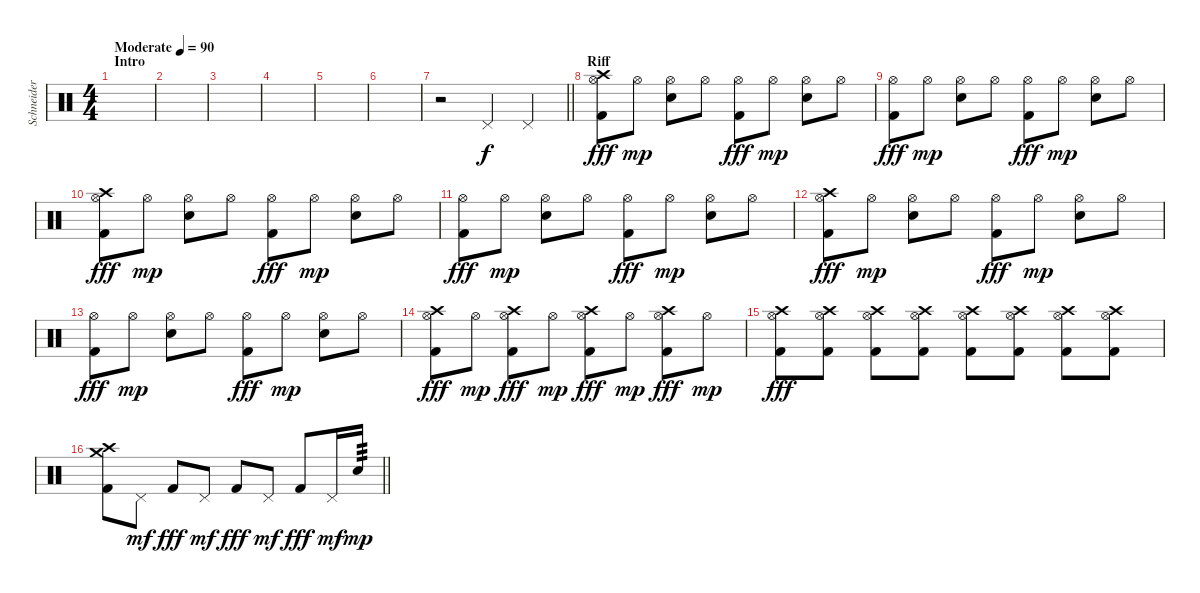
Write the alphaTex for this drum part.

\track ("Schneider" "Schneider") {instrument percussion}
\staff {score}
\articulation defaults
\ts (4 4)
\section ("" "Intro")
\tempo (90 "Moderate")
\clef neutral
\ks c
|
|
|
|
|
|
\barLineRight lightlight
r.2 "Pedal Hi-Hat (hit)".4 "Pedal Hi-Hat (hit)".4 |
\section ("" "Riff")
("Crash high (hit)" "Hi-Hat (open)" "Kick (hit) 2").8{dy fff} "Hi-Hat (open)".8{dy mp} ("Hi-Hat (open)" "Electric Snare (hit)").8 "Hi-Hat (open)".8 ("Hi-Hat (open)" "Kick (hit) 2").8{dy fff} "Hi-Hat (open)".8{dy mp} ("Hi-Hat (open)" "Electric Snare (hit)").8 "Hi-Hat (open)".8 |
("Hi-Hat (open)" "Kick (hit) 2").8{dy fff} "Hi-Hat (open)".8{dy mp} ("Hi-Hat (open)" "Electric Snare (hit)").8 "Hi-Hat (open)".8 ("Hi-Hat (open)" "Kick (hit) 2").8{dy fff} "Hi-Hat (open)".8{dy mp} ("Hi-Hat (open)" "Electric Snare (hit)").8 "Hi-Hat (open)".8 |
("Crash high (hit)" "Hi-Hat (open)" "Kick (hit) 2").8{dy fff} "Hi-Hat (open)".8{dy mp} ("Hi-Hat (open)" "Electric Snare (hit)").8 "Hi-Hat (open)".8 ("Hi-Hat (open)" "Kick (hit) 2").8{dy fff} "Hi-Hat (open)".8{dy mp} ("Hi-Hat (open)" "Electric Snare (hit)").8 "Hi-Hat (open)".8 |
("Hi-Hat (open)" "Kick (hit) 2").8{dy fff} "Hi-Hat (open)".8{dy mp} ("Hi-Hat (open)" "Electric Snare (hit)").8 "Hi-Hat (open)".8 ("Hi-Hat (open)" "Kick (hit) 2").8{dy fff} "Hi-Hat (open)".8{dy mp} ("Hi-Hat (open)" "Electric Snare (hit)").8 "Hi-Hat (open)".8 |
("Crash high (hit)" "Hi-Hat (open)" "Kick (hit) 2").8{dy fff} "Hi-Hat (open)".8{dy mp} ("Hi-Hat (open)" "Electric Snare (hit)").8 "Hi-Hat (open)".8 ("Hi-Hat (open)" "Kick (hit) 2").8{dy fff} "Hi-Hat (open)".8{dy mp} ("Hi-Hat (open)" "Electric Snare (hit)").8 "Hi-Hat (open)".8 |
("Hi-Hat (open)" "Kick (hit) 2").8{dy fff} "Hi-Hat (open)".8{dy mp} ("Hi-Hat (open)" "Electric Snare (hit)").8 "Hi-Hat (open)".8 ("Hi-Hat (open)" "Kick (hit) 2").8{dy fff} "Hi-Hat (open)".8{dy mp} ("Hi-Hat (open)" "Electric Snare (hit)").8 "Hi-Hat (open)".8 |
("Crash high (hit)" "Hi-Hat (open)" "Kick (hit) 2").8{dy fff} "Hi-Hat (open)".8{dy mp} ("Crash high (hit)" "Hi-Hat (open)" "Kick (hit) 2").8{dy fff} "Hi-Hat (open)".8{dy mp} ("Crash high (hit)" "Hi-Hat (open)" "Kick (hit) 2").8{dy fff} "Hi-Hat (open)".8{dy mp} ("Crash high (hit)" "Hi-Hat (open)" "Kick (hit) 2").8{dy fff} "Hi-Hat (open)".8{dy mp} |
("Crash high (hit)" "Hi-Hat (open)" "Kick (hit) 2").8{dy fff} ("Crash high (hit)" "Hi-Hat (open)" "Kick (hit) 2").8 ("Crash high (hit)" "Hi-Hat (open)" "Kick (hit) 2").8 ("Crash high (hit)" "Hi-Hat (open)" "Kick (hit) 2").8 ("Crash high (hit)" "Hi-Hat (open)" "Kick (hit) 2").8 ("Crash high (hit)" "Hi-Hat (open)" "Kick (hit) 2").8 ("Crash high (hit)" "Hi-Hat (open)" "Kick (hit) 2").8 ("Crash high (hit)" "Hi-Hat (open)" "Kick (hit) 2").8 |
\barLineRight lightlight
("Crash high (hit)" "Crash medium (hit)" "Kick (hit) 2").8 "Pedal Hi-Hat (hit)".8{dy mf} "Kick (hit) 2".8{dy fff} "Pedal Hi-Hat (hit)".8{dy mf} "Kick (hit) 2".8{dy fff} "Pedal Hi-Hat (hit)".8{dy mf} "Kick (hit) 2".8{dy fff} "Pedal Hi-Hat (hit)".16{dy mf} "Electric Snare (hit)".16{tp 3 dy mp}
